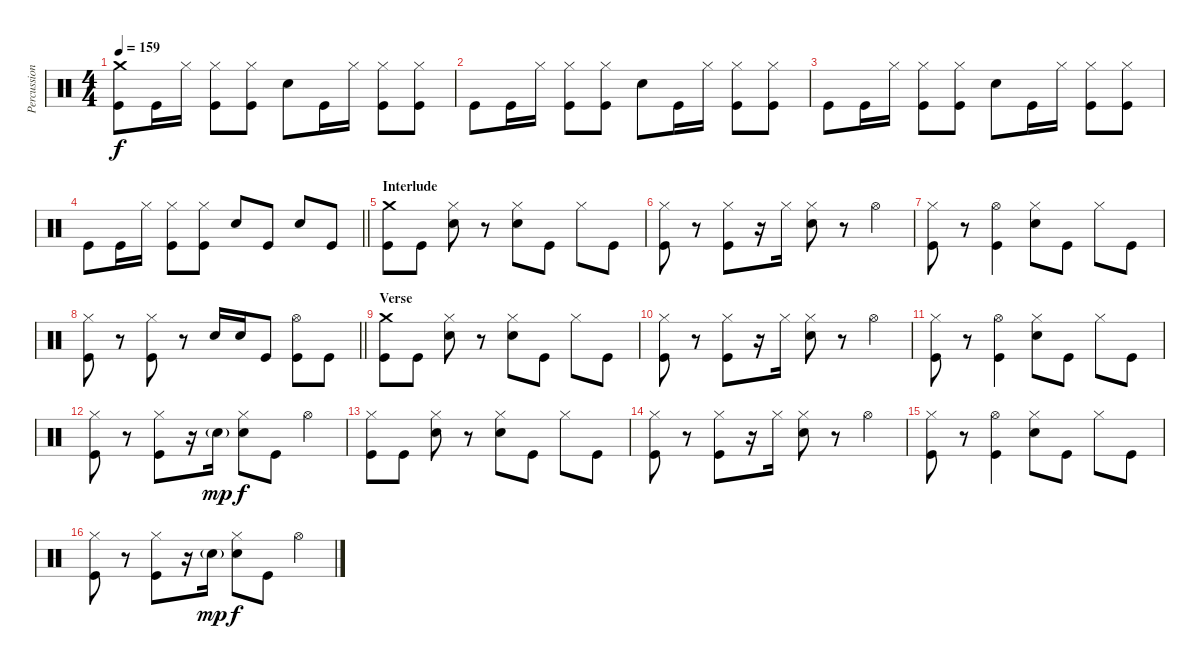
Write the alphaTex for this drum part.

\track ("Percussion" "Percussion") {instrument percussion}
\staff {score}
\articulation defaults
\ts (4 4)
\tempo 159
\clef neutral
\ks c
("Crash medium (hit)" "Kick (hit)").8{dy f} "Kick (hit)".16 "Hi-Hat (closed)".16 ("Hi-Hat (closed)" "Kick (hit)").8 ("Hi-Hat (closed)" "Kick (hit)").8 "Snare (hit) 2".8 "Kick (hit)".16 "Hi-Hat (closed)".16 ("Hi-Hat (closed)" "Kick (hit)").8 ("Hi-Hat (closed)" "Kick (hit)").8 |
"Kick (hit)".8 "Kick (hit)".16 "Hi-Hat (closed)".16 ("Hi-Hat (closed)" "Kick (hit)").8 ("Hi-Hat (closed)" "Kick (hit)").8 "Snare (hit) 2".8 "Kick (hit)".16 "Hi-Hat (closed)".16 ("Hi-Hat (closed)" "Kick (hit)").8 ("Hi-Hat (closed)" "Kick (hit)").8 |
"Kick (hit)".8 "Kick (hit)".16 "Hi-Hat (closed)".16 ("Hi-Hat (closed)" "Kick (hit)").8 ("Hi-Hat (closed)" "Kick (hit)").8 "Snare (hit) 2".8 "Kick (hit)".16 "Hi-Hat (closed)".16 ("Hi-Hat (closed)" "Kick (hit)").8 ("Hi-Hat (closed)" "Kick (hit)").8 |
\barLineRight lightlight "Kick (hit)".8 "Kick (hit)".16 "Hi-Hat (closed)".16
("Hi-Hat (closed)" "Kick (hit)").8 ("Hi-Hat (closed)" "Kick (hit)").8 "Snare (hit) 2".8 "Kick (hit)".8 "Snare (hit) 2".8 "Kick (hit)".8 |
\section ("" "Interlude")
("Crash medium (hit)" "Kick (hit)").8 "Kick (hit)".8 ("Hi-Hat (closed)" "Snare (hit) 2").8 r.8 ("Hi-Hat (closed)" "Snare (hit) 2").8 "Kick (hit)".8 "Hi-Hat (closed)".8 "Kick (hit)".8 |
("Hi-Hat (closed)" "Kick (hit)").8 r.8 ("Hi-Hat (closed)" "Kick (hit)").8 r.16 "Hi-Hat (closed)".16 ("Hi-Hat (closed)" "Snare (hit) 2").8 r.8 "Hi-Hat (open)".4 |
("Hi-Hat (closed)" "Kick (hit)").8 r.8 ("Hi-Hat (open)" "Kick (hit)").4 ("Hi-Hat (closed)" "Snare (hit) 2").8 "Kick (hit)".8 "Hi-Hat (closed)".8 "Kick (hit)".8 |
\barLineRight lightlight
("Hi-Hat (closed)" "Kick (hit)").8 r.8 ("Hi-Hat (closed)" "Kick (hit)").8 r.8 "Snare (hit) 2".16 "Snare (hit) 2".16 "Kick (hit)".8 ("Hi-Hat (open)" "Kick (hit)").8 "Kick (hit)".8 |
\section ("" "Verse")
("Crash medium (hit)" "Kick (hit)").8 "Kick (hit)".8 ("Hi-Hat (closed)" "Snare (hit) 2").8 r.8 ("Hi-Hat (closed)" "Snare (hit) 2").8 "Kick (hit)".8 "Hi-Hat (closed)".8 "Kick (hit)".8 |
("Hi-Hat (closed)" "Kick (hit)").8 r.8 ("Hi-Hat (closed)" "Kick (hit)").8 r.16 "Hi-Hat (closed)".16 ("Hi-Hat (closed)" "Snare (hit) 2").8 r.8 "Hi-Hat (open)".4 |
("Hi-Hat (closed)" "Kick (hit)").8 r.8 ("Hi-Hat (open)" "Kick (hit)").4 ("Hi-Hat (closed)" "Snare (hit) 2").8 "Kick (hit)".8 "Hi-Hat (closed)".8 "Kick (hit)".8 |
("Hi-Hat (closed)" "Kick (hit)").8 r.8 ("Hi-Hat (closed)" "Kick (hit)").8 r.16 "Snare (hit) 2"{g}.16{dy mp} ("Hi-Hat (closed)" "Snare (hit) 2").8{dy f} "Kick (hit)".8 "Hi-Hat (open)".4 |
("Hi-Hat (closed)" "Kick (hit)").8 "Kick (hit)".8 ("Hi-Hat (closed)" "Snare (hit) 2").8 r.8 ("Hi-Hat (closed)" "Snare (hit) 2").8 "Kick (hit)".8 "Hi-Hat (closed)".8 "Kick (hit)".8 |
("Hi-Hat (closed)" "Kick (hit)").8 r.8 ("Hi-Hat (closed)" "Kick (hit)").8 r.16 "Hi-Hat (closed)".16 ("Hi-Hat (closed)" "Snare (hit) 2").8 r.8 "Hi-Hat (open)".4 |
("Hi-Hat (closed)" "Kick (hit)").8 r.8 ("Hi-Hat (open)" "Kick (hit)").4 ("Hi-Hat (closed)" "Snare (hit) 2").8 "Kick (hit)".8 "Hi-Hat (closed)".8 "Kick (hit)".8 |
("Hi-Hat (closed)" "Kick (hit)").8 r.8 ("Hi-Hat (closed)" "Kick (hit)").8 r.16 "Snare (hit) 2"{g}.16{dy mp} ("Hi-Hat (closed)" "Snare (hit) 2").8{dy f} "Kick (hit)".8 "Hi-Hat (open)".4
